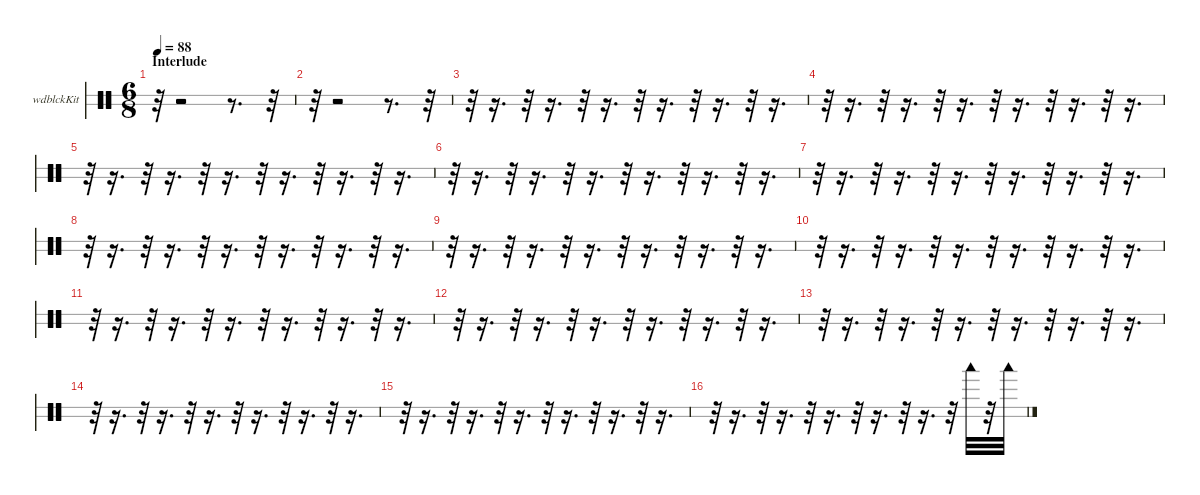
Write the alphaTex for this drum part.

\hideDynamics
\bracketExtendMode nobrackets
\firstSystemTrackNameOrientation horizontal
\otherSystemsTrackNameOrientation horizontal
\track ("Woodblock" "wdblckKit") {instrument percussion}
\staff {score 2}
\articulation defaults
\ts (6 8)
\section ("" "Interlude")
\tempo 88
\clef neutral
\ks c
r.32{dy f} r.2 r.8{d} r.32 |
r.32 r.2 r.8{d} r.32 |
r.32 r.16{d} r.32 r.16{d} r.32 r.16{d} r.32 r.16{d} r.32 r.16{d} r.32 r.16{d} |
r.32 r.16{d} r.32 r.16{d} r.32 r.16{d} r.32 r.16{d} r.32 r.16{d} r.32 r.16{d} |
r.32 r.16{d} r.32 r.16{d} r.32 r.16{d} r.32 r.16{d} r.32 r.16{d} r.32 r.16{d} |
r.32 r.16{d} r.32 r.16{d} r.32 r.16{d} r.32 r.16{d} r.32 r.16{d} r.32 r.16{d} |
r.32 r.16{d} r.32 r.16{d} r.32 r.16{d} r.32 r.16{d} r.32 r.16{d} r.32 r.16{d} |
r.32 r.16{d} r.32 r.16{d} r.32 r.16{d} r.32 r.16{d} r.32 r.16{d} r.32 r.16{d} |
r.32 r.16{d} r.32 r.16{d} r.32 r.16{d} r.32 r.16{d} r.32 r.16{d} r.32 r.16{d} |
r.32 r.16{d} r.32 r.16{d} r.32 r.16{d} r.32 r.16{d} r.32 r.16{d} r.32 r.16{d} |
r.32 r.16{d} r.32 r.16{d} r.32 r.16{d} r.32 r.16{d} r.32 r.16{d} r.32 r.16{d} |
r.32 r.16{d} r.32 r.16{d} r.32 r.16{d} r.32 r.16{d} r.32 r.16{d} r.32 r.16{d} |
r.32 r.16{d} r.32 r.16{d} r.32 r.16{d} r.32 r.16{d} r.32 r.16{d} r.32 r.16{d} |
r.32 r.16{d} r.32 r.16{d} r.32 r.16{d} r.32 r.16{d} r.32 r.16{d} r.32 r.16{d} |
r.32 r.16{d} r.32 r.16{d} r.32 r.16{d} r.32 r.16{d} r.32 r.16{d} r.32 r.16{d} |
r.32 r.16{d} r.32 r.16{d} r.32 r.16{d} r.32 r.16{d} r.32 r.16{d} r.32 "Woodblock low (hit)".32{dy mf} r.32 "Woodblock low (hit)".32{dy f}
